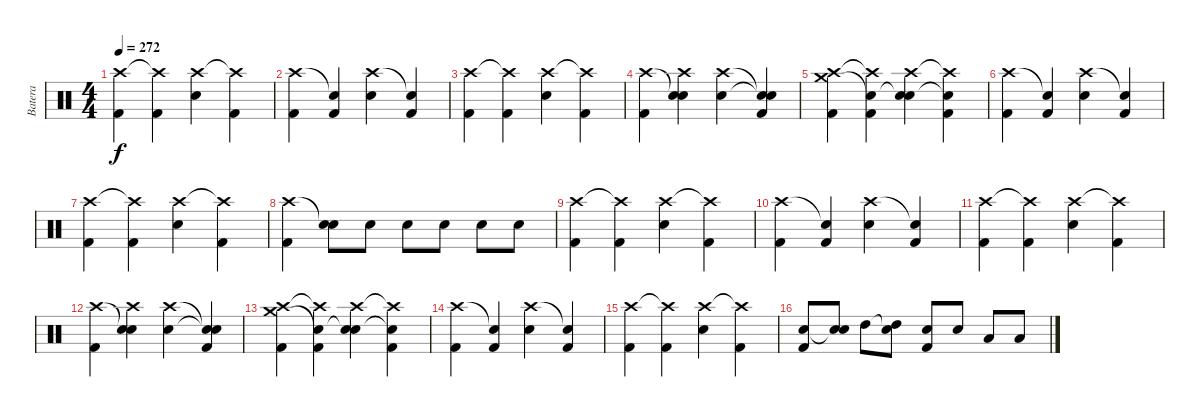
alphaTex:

\track ("Batera" "Batera") {instrument percussion}
\staff {score}
\articulation defaults
\ts (4 4)
\tempo 272
\clef neutral
\ks c
("Crash high (hit)" "Kick (hit) 2").4{dy f} ("Crash high (hit)"{t} "Kick (hit) 2").4 ("Crash high (hit)" "Electric Snare (hit)").4 ("Crash high (hit)"{t} "Kick (hit) 2").4 |
("Crash high (hit)" "Kick (hit) 2").4 ("Snare (hit)"{t} "Kick (hit) 2").4 ("Crash high (hit)" "Electric Snare (hit)").4 ("Snare (hit)"{t} "Kick (hit) 2").4 |
("Crash high (hit)" "Kick (hit) 2").4 ("Crash high (hit)"{t} "Kick (hit) 2").4 ("Crash high (hit)" "Electric Snare (hit)").4 ("Crash high (hit)"{t} "Kick (hit) 2").4 |
("Crash high (hit)" "Kick (hit) 2").4 ("Snare (hit)"{t} "Crash high (hit)" "Electric Snare (hit)").4 ("Crash high (hit)" "Electric Snare (hit)").4 ("Snare (hit)"{t} "Snare (hit)"{t} "Kick (hit) 2").4 |
("Crash high (hit)" "Crash medium (hit)" "Kick (hit) 2").4 ("Crash high (hit)"{t} "Snare (hit)"{t} "Kick (hit) 2").4 ("Crash high (hit)" "Snare (hit)"{t} "Electric Snare (hit)").4 ("Crash high (hit)"{t} "Snare (hit)"{t} "Kick (hit) 2").4 |
("Crash high (hit)" "Kick (hit) 2").4 ("Snare (hit)"{t} "Kick (hit) 2").4 ("Crash high (hit)" "Electric Snare (hit)").4 ("Snare (hit)"{t} "Kick (hit) 2").4 |
("Crash high (hit)" "Kick (hit) 2").4 ("Crash high (hit)"{t} "Kick (hit) 2").4 ("Crash high (hit)" "Electric Snare (hit)").4 ("Crash high (hit)"{t} "Kick (hit) 2").4 |
("Crash high (hit)" "Kick (hit) 2").4 ("Snare (hit)"{t} "Electric Snare (hit)").8 "Electric Snare (hit)".8 "Electric Snare (hit)".8 "Electric Snare (hit)".8 "Electric Snare (hit)".8 "Electric Snare (hit)".8 |
("Crash high (hit)" "Kick (hit) 2").4 ("Crash high (hit)"{t} "Kick (hit) 2").4 ("Crash high (hit)" "Electric Snare (hit)").4 ("Crash high (hit)"{t} "Kick (hit) 2").4 |
("Crash high (hit)" "Kick (hit) 2").4 ("Snare (hit)"{t} "Kick (hit) 2").4 ("Crash high (hit)" "Electric Snare (hit)").4 ("Snare (hit)"{t} "Kick (hit) 2").4 |
("Crash high (hit)" "Kick (hit) 2").4 ("Crash high (hit)"{t} "Kick (hit) 2").4 ("Crash high (hit)" "Electric Snare (hit)").4 ("Crash high (hit)"{t} "Kick (hit) 2").4 |
("Crash high (hit)" "Kick (hit) 2").4 ("Snare (hit)"{t} "Crash high (hit)" "Electric Snare (hit)").4 ("Crash high (hit)" "Electric Snare (hit)").4 ("Snare (hit)"{t} "Snare (hit)"{t} "Kick (hit) 2").4 |
("Crash high (hit)" "Crash medium (hit)" "Kick (hit) 2").4 ("Crash high (hit)"{t} "Snare (hit)"{t} "Kick (hit) 2").4 ("Crash high (hit)" "Snare (hit)"{t} "Electric Snare (hit)").4 ("Crash high (hit)"{t} "Snare (hit)"{t} "Kick (hit) 2").4 |
("Crash high (hit)" "Kick (hit) 2").4 ("Snare (hit)"{t} "Kick (hit) 2").4 ("Crash high (hit)" "Electric Snare (hit)").4 ("Snare (hit)"{t} "Kick (hit) 2").4 |
("Crash high (hit)" "Kick (hit) 2").4 ("Crash high (hit)"{t} "Kick (hit) 2").4 ("Crash high (hit)" "Electric Snare (hit)").4 ("Crash high (hit)"{t} "Kick (hit) 2").4 |
("Electric Snare (hit)" "Kick (hit) 2").8 ("Snare (hit)"{t} "Electric Snare (hit)").8 "High Tom (hit)".8 ("Snare (hit)"{t} "High Tom (hit)").8 ("Electric Snare (hit)" "Kick (hit) 2").8 "Electric Snare (hit)".8 "Low Tom (hit)".8 "Low Tom (hit)".8
